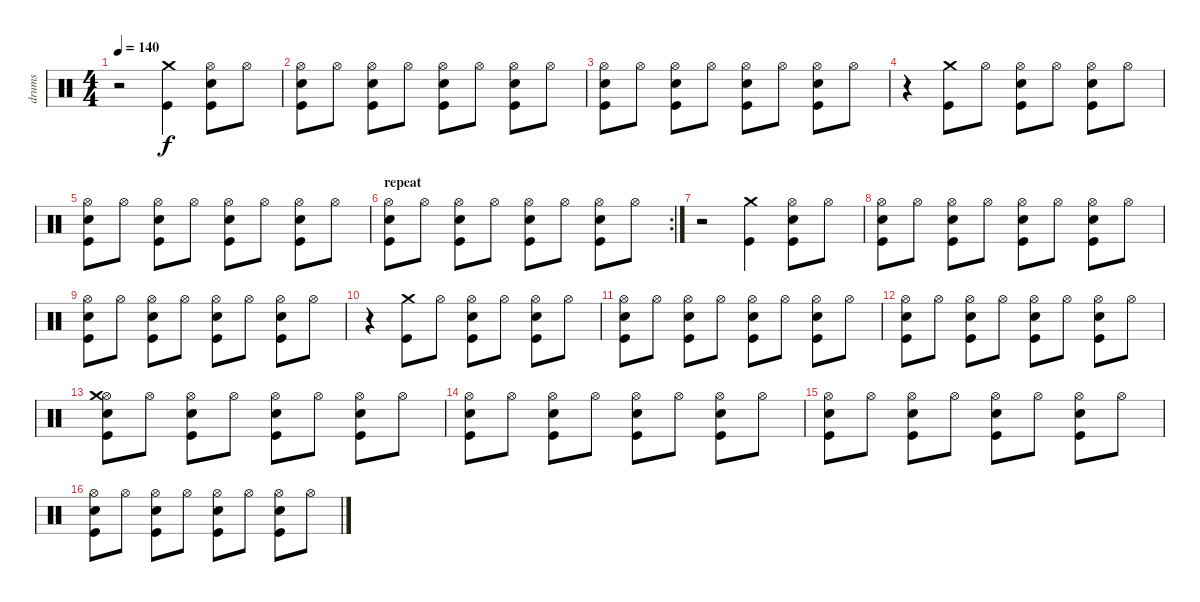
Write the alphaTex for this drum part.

\track ("drums" "drums") {instrument percussion}
\staff {score}
\articulation defaults
\ts (4 4)
\tempo 140
\clef neutral
\ks c
r.2{dy f} ("Crash medium (hit)" "Kick (hit)").4 ("Hi-Hat (open)" "Snare (hit) 2" "Kick (hit)").8 "Hi-Hat (open)".8 |
("Hi-Hat (open)" "Snare (hit) 2" "Kick (hit)").8 "Hi-Hat (open)".8 ("Hi-Hat (open)" "Snare (hit) 2" "Kick (hit)").8 "Hi-Hat (open)".8 ("Hi-Hat (open)" "Snare (hit) 2" "Kick (hit)").8 "Hi-Hat (open)".8 ("Hi-Hat (open)" "Snare (hit) 2" "Kick (hit)").8 "Hi-Hat (open)".8 |
("Hi-Hat (open)" "Snare (hit) 2" "Kick (hit)").8 "Hi-Hat (open)".8 ("Hi-Hat (open)" "Snare (hit) 2" "Kick (hit)").8 "Hi-Hat (open)".8 ("Hi-Hat (open)" "Snare (hit) 2" "Kick (hit)").8 "Hi-Hat (open)".8 ("Hi-Hat (open)" "Snare (hit) 2" "Kick (hit)").8 "Hi-Hat (open)".8 |
r.4 ("Crash medium (hit)" "Kick (hit)").8 "Hi-Hat (open)".8 ("Hi-Hat (open)" "Snare (hit) 2" "Kick (hit)").8 "Hi-Hat (open)".8 ("Hi-Hat (open)" "Snare (hit) 2" "Kick (hit)").8 "Hi-Hat (open)".8 |
("Hi-Hat (open)" "Snare (hit) 2" "Kick (hit)").8 "Hi-Hat (open)".8 ("Hi-Hat (open)" "Snare (hit) 2" "Kick (hit)").8 "Hi-Hat (open)".8 ("Hi-Hat (open)" "Snare (hit) 2" "Kick (hit)").8 "Hi-Hat (open)".8 ("Hi-Hat (open)" "Snare (hit) 2" "Kick (hit)").8 "Hi-Hat (open)".8 |
\rc 2
\section ("" "repeat")
("Hi-Hat (open)" "Snare (hit) 2" "Kick (hit)").8 "Hi-Hat (open)".8 ("Hi-Hat (open)" "Snare (hit) 2" "Kick (hit)").8 "Hi-Hat (open)".8 ("Hi-Hat (open)" "Snare (hit) 2" "Kick (hit)").8 "Hi-Hat (open)".8 ("Hi-Hat (open)" "Snare (hit) 2" "Kick (hit)").8 "Hi-Hat (open)".8 |
r.2 ("Crash medium (hit)" "Kick (hit)").4 ("Hi-Hat (open)" "Snare (hit) 2" "Kick (hit)").8 "Hi-Hat (open)".8 |
("Hi-Hat (open)" "Snare (hit) 2" "Kick (hit)").8 "Hi-Hat (open)".8 ("Hi-Hat (open)" "Snare (hit) 2" "Kick (hit)").8 "Hi-Hat (open)".8 ("Hi-Hat (open)" "Snare (hit) 2" "Kick (hit)").8 "Hi-Hat (open)".8 ("Hi-Hat (open)" "Snare (hit) 2" "Kick (hit)").8 "Hi-Hat (open)".8 |
("Hi-Hat (open)" "Snare (hit) 2" "Kick (hit)").8 "Hi-Hat (open)".8 ("Hi-Hat (open)" "Snare (hit) 2" "Kick (hit)").8 "Hi-Hat (open)".8 ("Hi-Hat (open)" "Snare (hit) 2" "Kick (hit)").8 "Hi-Hat (open)".8 ("Hi-Hat (open)" "Snare (hit) 2" "Kick (hit)").8 "Hi-Hat (open)".8 |
r.4 ("Crash medium (hit)" "Kick (hit)").8 "Hi-Hat (open)".8 ("Hi-Hat (open)" "Snare (hit) 2" "Kick (hit)").8 "Hi-Hat (open)".8 ("Hi-Hat (open)" "Snare (hit) 2" "Kick (hit)").8 "Hi-Hat (open)".8 |
("Hi-Hat (open)" "Snare (hit) 2" "Kick (hit)").8 "Hi-Hat (open)".8 ("Hi-Hat (open)" "Snare (hit) 2" "Kick (hit)").8 "Hi-Hat (open)".8 ("Hi-Hat (open)" "Snare (hit) 2" "Kick (hit)").8 "Hi-Hat (open)".8 ("Hi-Hat (open)" "Snare (hit) 2" "Kick (hit)").8 "Hi-Hat (open)".8 |
("Hi-Hat (open)" "Snare (hit) 2" "Kick (hit)").8 "Hi-Hat (open)".8 ("Hi-Hat (open)" "Snare (hit) 2" "Kick (hit)").8 "Hi-Hat (open)".8 ("Hi-Hat (open)" "Snare (hit) 2" "Kick (hit)").8 "Hi-Hat (open)".8 ("Hi-Hat (open)" "Snare (hit) 2" "Kick (hit)").8 "Hi-Hat (open)".8 |
("Hi-Hat (open)" "Crash medium (hit)" "Snare (hit) 2" "Kick (hit)").8 "Hi-Hat (open)".8 ("Hi-Hat (open)" "Snare (hit) 2" "Kick (hit)").8 "Hi-Hat (open)".8 ("Hi-Hat (open)" "Snare (hit) 2" "Kick (hit)").8 "Hi-Hat (open)".8 ("Hi-Hat (open)" "Snare (hit) 2" "Kick (hit)").8 "Hi-Hat (open)".8 |
("Hi-Hat (open)" "Snare (hit) 2" "Kick (hit)").8 "Hi-Hat (open)".8 ("Hi-Hat (open)" "Snare (hit) 2" "Kick (hit)").8 "Hi-Hat (open)".8 ("Hi-Hat (open)" "Snare (hit) 2" "Kick (hit)").8 "Hi-Hat (open)".8 ("Hi-Hat (open)" "Snare (hit) 2" "Kick (hit)").8 "Hi-Hat (open)".8 |
("Hi-Hat (open)" "Snare (hit) 2" "Kick (hit)").8 "Hi-Hat (open)".8 ("Hi-Hat (open)" "Snare (hit) 2" "Kick (hit)").8 "Hi-Hat (open)".8 ("Hi-Hat (open)" "Snare (hit) 2" "Kick (hit)").8 "Hi-Hat (open)".8 ("Hi-Hat (open)" "Snare (hit) 2" "Kick (hit)").8 "Hi-Hat (open)".8 |
("Hi-Hat (open)" "Snare (hit) 2" "Kick (hit)").8 "Hi-Hat (open)".8 ("Hi-Hat (open)" "Snare (hit) 2" "Kick (hit)").8 "Hi-Hat (open)".8 ("Hi-Hat (open)" "Snare (hit) 2" "Kick (hit)").8 "Hi-Hat (open)".8 ("Hi-Hat (open)" "Snare (hit) 2" "Kick (hit)").8 "Hi-Hat (open)".8
